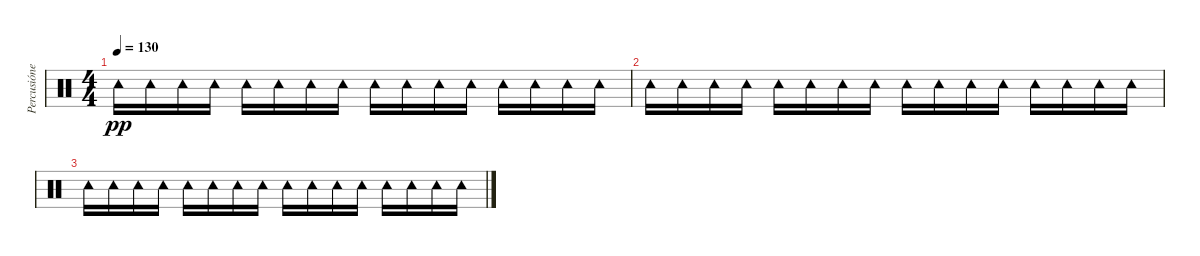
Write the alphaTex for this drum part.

\track ("Percusiónes" "Percusióne") {instrument percussion}
\staff {score}
\articulation defaults
\ts (4 4)
\tempo 130
\clef neutral
\ks c "Tambourine (hit)".16{dy pp} "Tambourine (hit)".16 "Tambourine (hit)".16 "Tambourine (hit)".16 "Tambourine (hit)".16 "Tambourine (hit)".16 "Tambourine (hit)".16 "Tambourine (hit)".16 "Tambourine (hit)".16 "Tambourine (hit)".16 "Tambourine (hit)".16 "Tambourine (hit)".16 "Tambourine (hit)".16 "Tambourine (hit)".16 "Tambourine (hit)".16 "Tambourine (hit)".16
|
"Tambourine (hit)".16 "Tambourine (hit)".16 "Tambourine (hit)".16 "Tambourine (hit)".16 "Tambourine (hit)".16 "Tambourine (hit)".16 "Tambourine (hit)".16 "Tambourine (hit)".16 "Tambourine (hit)".16 "Tambourine (hit)".16 "Tambourine (hit)".16 "Tambourine (hit)".16 "Tambourine (hit)".16 "Tambourine (hit)".16 "Tambourine (hit)".16 "Tambourine (hit)".16 |
"Tambourine (hit)".16 "Tambourine (hit)".16 "Tambourine (hit)".16 "Tambourine (hit)".16 "Tambourine (hit)".16 "Tambourine (hit)".16 "Tambourine (hit)".16 "Tambourine (hit)".16 "Tambourine (hit)".16 "Tambourine (hit)".16 "Tambourine (hit)".16 "Tambourine (hit)".16 "Tambourine (hit)".16 "Tambourine (hit)".16 "Tambourine (hit)".16 "Tambourine (hit)".16
